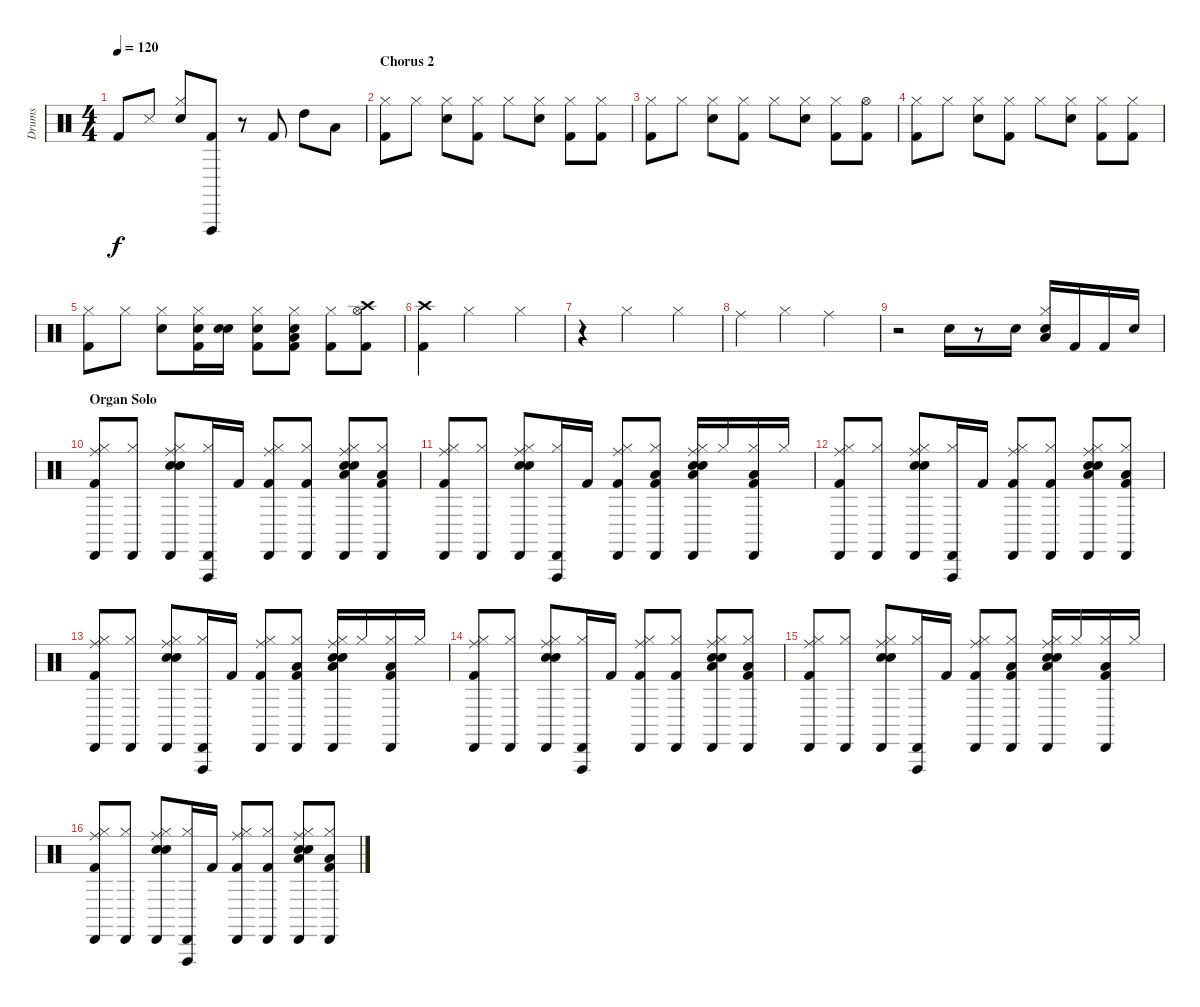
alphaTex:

\track ("Drums" "Drums") {instrument percussion}
\staff {score}
\articulation defaults
\ts (4 4)
\tempo 120
\clef neutral
\ks c "Kick (hit) 2".8{dy f} "Snare (side stick) 3".8
("Snare (hit) 2" "Hi-Hat (closed)").8 ("Kick (hit) 2" "Vibraslap (hit)").8 r.8 "Kick (hit) 2".8 "High Tom (hit)".8 "Low Tom (hit)".8 |
\section ("" "Chorus 2")
("Kick (hit) 2" "Hi-Hat (closed)").8 "Hi-Hat (closed)".8 ("Snare (hit) 2" "Hi-Hat (closed)").8 ("Kick (hit) 2" "Hi-Hat (closed)").8 "Hi-Hat (closed)".8 ("Snare (hit) 2" "Hi-Hat (closed)").8 ("Kick (hit) 2" "Hi-Hat (closed)").8 ("Kick (hit) 2" "Hi-Hat (closed)").8 |
("Kick (hit) 2" "Hi-Hat (closed)").8 "Hi-Hat (closed)".8 ("Snare (hit) 2" "Hi-Hat (closed)").8 ("Kick (hit) 2" "Hi-Hat (closed)").8 "Hi-Hat (closed)".8 ("Snare (hit) 2" "Hi-Hat (closed)").8 ("Kick (hit) 2" "Hi-Hat (closed)").8 ("Kick (hit) 2" "Hi-Hat (open)").8 |
("Kick (hit) 2" "Hi-Hat (closed)").8 "Hi-Hat (closed)".8 ("Snare (hit) 2" "Hi-Hat (closed)").8 ("Kick (hit) 2" "Hi-Hat (closed)").8 "Hi-Hat (closed)".8 ("Snare (hit) 2" "Hi-Hat (closed)").8 ("Kick (hit) 2" "Hi-Hat (closed)").8 ("Kick (hit) 2" "Hi-Hat (closed)").8 |
("Kick (hit) 2" "Hi-Hat (closed)").8 "Hi-Hat (closed)".8 ("Snare (hit) 2" "Hi-Hat (closed)").8 ("Kick (hit) 2" "Snare (hit) 2" "Hi-Hat (closed)").16 ("Snare (hit) 2" "Snare (hit) 2").16 ("Snare (hit) 2" "Kick (hit) 2" "Hi-Hat (closed)").8 ("Kick (hit) 2" "Snare (hit) 2" "Hi-Hat (closed)" "Low Floor Tom (hit)").8 ("Kick (hit) 2" "Hi-Hat (closed)").8 ("Kick (hit) 2" "Crash high (hit)" "Hi-Hat (open)").8 |
("Kick (hit) 2" "Crash high (hit)").4 "Hi-Hat (closed)".2 "Hi-Hat (closed)".4 |
r.4 "Hi-Hat (closed)".2 "Hi-Hat (closed)".4 |
"Ride (middle)".4 "Hi-Hat (closed)".4 "Ride (middle)".2 |
r.2 "Snare (hit) 2".16 r.8 "Snare (hit) 2".16 ("Snare (hit) 2" "Hi-Hat (closed)" "Low Floor Tom (hit)").16 "Kick (hit) 2".16 "Kick (hit) 2".16 "Snare (hit) 2".16 |
\section ("" "Organ Solo")
("Kick (hit) 2" "Hi-Hat (closed)" "Ride (middle)" "Cabasa (hit)").8 ("Hi-Hat (closed)" "Cabasa (hit)").8 ("Snare (hit) 2" "Hi-Hat (closed)" "Ride (middle)" "Cabasa (hit)" "Hand Clap (hit)").8 ("Hi-Hat (closed)" "Cabasa (hit)" "Vibraslap (hit)").16 "Kick (hit) 2".16 ("Kick (hit) 2" "Hi-Hat (closed)" "Ride (middle)" "Cabasa (hit)").8 ("Kick (hit) 2" "Hi-Hat (closed)" "Cabasa (hit)").8 ("Snare (hit) 2" "Hi-Hat (closed)" "Ride (middle)" "Low Tom (hit)" "Cabasa (hit)" "Hand Clap (hit)").8 ("Kick (hit) 2" "Hi-Hat (closed)" "Low Tom (hit)" "Cabasa (hit)").8 |
("Kick (hit) 2" "Hi-Hat (closed)" "Ride (middle)" "Cabasa (hit)").8 ("Hi-Hat (closed)" "Cabasa (hit)").8 ("Snare (hit) 2" "Hi-Hat (closed)" "Ride (middle)" "Cabasa (hit)" "Hand Clap (hit)").8 ("Hi-Hat (closed)" "Cabasa (hit)" "Vibraslap (hit)").16 "Kick (hit) 2".16 ("Kick (hit) 2" "Hi-Hat (closed)" "Ride (middle)" "Cabasa (hit)").8 ("Kick (hit) 2" "Hi-Hat (closed)" "Low Tom (hit)" "Cabasa (hit)").8 ("Snare (hit) 2" "Hi-Hat (closed)" "Ride (middle)" "Low Tom (hit)" "Cabasa (hit)" "Hand Clap (hit)").16 "Hi-Hat (closed)".16 ("Kick (hit) 2" "Hi-Hat (closed)" "Low Tom (hit)" "Cabasa (hit)").16 "Hi-Hat (closed)".16 |
("Kick (hit) 2" "Hi-Hat (closed)" "Ride (middle)" "Cabasa (hit)").8 ("Hi-Hat (closed)" "Cabasa (hit)").8 ("Snare (hit) 2" "Hi-Hat (closed)" "Ride (middle)" "Cabasa (hit)" "Hand Clap (hit)").8 ("Hi-Hat (closed)" "Cabasa (hit)" "Vibraslap (hit)").16 "Kick (hit) 2".16 ("Kick (hit) 2" "Hi-Hat (closed)" "Ride (middle)" "Cabasa (hit)").8 ("Kick (hit) 2" "Hi-Hat (closed)" "Cabasa (hit)").8 ("Snare (hit) 2" "Hi-Hat (closed)" "Ride (middle)" "Low Tom (hit)" "Cabasa (hit)" "Hand Clap (hit)").8 ("Kick (hit) 2" "Hi-Hat (closed)" "Low Tom (hit)" "Cabasa (hit)").8 |
("Kick (hit) 2" "Hi-Hat (closed)" "Ride (middle)" "Cabasa (hit)").8 ("Hi-Hat (closed)" "Cabasa (hit)").8 ("Snare (hit) 2" "Hi-Hat (closed)" "Ride (middle)" "Cabasa (hit)" "Hand Clap (hit)").8 ("Hi-Hat (closed)" "Cabasa (hit)" "Vibraslap (hit)").16 "Kick (hit) 2".16 ("Kick (hit) 2" "Hi-Hat (closed)" "Ride (middle)" "Cabasa (hit)").8 ("Kick (hit) 2" "Hi-Hat (closed)" "Low Tom (hit)" "Cabasa (hit)").8 ("Snare (hit) 2" "Hi-Hat (closed)" "Ride (middle)" "Low Tom (hit)" "Cabasa (hit)" "Hand Clap (hit)").16 "Hi-Hat (closed)".16 ("Kick (hit) 2" "Hi-Hat (closed)" "Low Tom (hit)" "Cabasa (hit)").16 "Hi-Hat (closed)".16 |
("Kick (hit) 2" "Hi-Hat (closed)" "Ride (middle)" "Cabasa (hit)").8 ("Hi-Hat (closed)" "Cabasa (hit)").8 ("Snare (hit) 2" "Hi-Hat (closed)" "Ride (middle)" "Cabasa (hit)" "Hand Clap (hit)").8 ("Hi-Hat (closed)" "Cabasa (hit)" "Vibraslap (hit)").16 "Kick (hit) 2".16 ("Kick (hit) 2" "Hi-Hat (closed)" "Ride (middle)" "Cabasa (hit)").8 ("Kick (hit) 2" "Hi-Hat (closed)" "Cabasa (hit)").8 ("Snare (hit) 2" "Hi-Hat (closed)" "Ride (middle)" "Low Tom (hit)" "Cabasa (hit)" "Hand Clap (hit)").8 ("Kick (hit) 2" "Hi-Hat (closed)" "Low Tom (hit)" "Cabasa (hit)").8 |
("Kick (hit) 2" "Hi-Hat (closed)" "Ride (middle)" "Cabasa (hit)").8 ("Hi-Hat (closed)" "Cabasa (hit)").8 ("Snare (hit) 2" "Hi-Hat (closed)" "Ride (middle)" "Cabasa (hit)" "Hand Clap (hit)").8 ("Hi-Hat (closed)" "Cabasa (hit)" "Vibraslap (hit)").16 "Kick (hit) 2".16 ("Kick (hit) 2" "Hi-Hat (closed)" "Ride (middle)" "Cabasa (hit)").8 ("Kick (hit) 2" "Hi-Hat (closed)" "Low Tom (hit)" "Cabasa (hit)").8 ("Snare (hit) 2" "Hi-Hat (closed)" "Ride (middle)" "Low Tom (hit)" "Cabasa (hit)" "Hand Clap (hit)").16 "Hi-Hat (closed)".16 ("Kick (hit) 2" "Hi-Hat (closed)" "Low Tom (hit)" "Cabasa (hit)").16 "Hi-Hat (closed)".16 |
("Kick (hit) 2" "Hi-Hat (closed)" "Ride (middle)" "Cabasa (hit)").8 ("Hi-Hat (closed)" "Cabasa (hit)").8 ("Snare (hit) 2" "Hi-Hat (closed)" "Ride (middle)" "Cabasa (hit)" "Hand Clap (hit)").8 ("Hi-Hat (closed)" "Cabasa (hit)" "Vibraslap (hit)").16 "Kick (hit) 2".16 ("Kick (hit) 2" "Hi-Hat (closed)" "Ride (middle)" "Cabasa (hit)").8 ("Kick (hit) 2" "Hi-Hat (closed)" "Cabasa (hit)").8 ("Snare (hit) 2" "Hi-Hat (closed)" "Ride (middle)" "Low Tom (hit)" "Cabasa (hit)" "Hand Clap (hit)").8 ("Kick (hit) 2" "Hi-Hat (closed)" "Low Tom (hit)" "Cabasa (hit)").8
